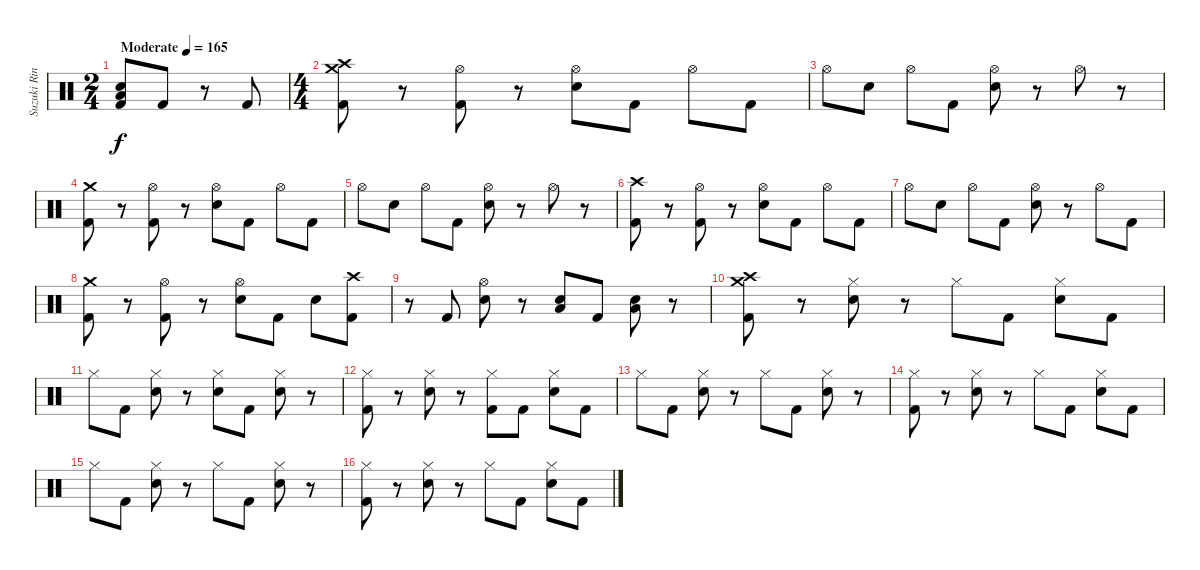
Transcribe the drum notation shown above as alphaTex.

\track ("Suzuki Rina" "Suzuki Rin") {instrument percussion}
\staff {score}
\articulation defaults
\ts (2 4)
\tempo (165 "Moderate")
\clef neutral
\ks c
("Electric Snare (hit)" "Low Floor Tom (hit)" "Kick (hit) 2").8{dy f} "Kick (hit) 2".8 r.8 "Kick (hit) 2".8 |
\ts (4 4)
("Crash high (hit)" "Crash medium (hit)" "Kick (hit) 2").8 r.8 ("Hi-Hat (open)" "Kick (hit) 2").8 r.8 ("Hi-Hat (open)" "Electric Snare (hit)").8 "Kick (hit) 2".8 "Hi-Hat (open)".8 "Kick (hit) 2".8 |
"Hi-Hat (open)".8 "Electric Snare (hit)".8 "Hi-Hat (open)".8 "Kick (hit) 2".8 ("Hi-Hat (open)" "Electric Snare (hit)").8 r.8 "Hi-Hat (open)".8 r.8 |
("Crash medium (hit)" "Kick (hit) 2").8 r.8 ("Hi-Hat (open)" "Kick (hit) 2").8 r.8 ("Hi-Hat (open)" "Electric Snare (hit)").8 "Kick (hit) 2".8 "Hi-Hat (open)".8 "Kick (hit) 2".8 |
"Hi-Hat (open)".8 "Electric Snare (hit)".8 "Hi-Hat (open)".8 "Kick (hit) 2".8 ("Hi-Hat (open)" "Electric Snare (hit)").8 r.8 "Hi-Hat (open)".8 r.8 |
("Crash high (hit)" "Kick (hit) 2").8 r.8 ("Hi-Hat (open)" "Kick (hit) 2").8 r.8 ("Hi-Hat (open)" "Electric Snare (hit)").8 "Kick (hit) 2".8 "Hi-Hat (open)".8 "Kick (hit) 2".8 |
"Hi-Hat (open)".8 "Electric Snare (hit)".8 "Hi-Hat (open)".8 "Kick (hit) 2".8 ("Hi-Hat (open)" "Electric Snare (hit)").8 r.8 "Hi-Hat (open)".8 "Kick (hit) 2".8 |
("Crash medium (hit)" "Kick (hit) 2").8 r.8 ("Hi-Hat (open)" "Kick (hit) 2").8 r.8 ("Hi-Hat (open)" "Electric Snare (hit)").8 "Kick (hit) 2".8 "Electric Snare (hit)".8 ("Crash high (hit)" "Kick (hit) 2").8 |
r.8 "Kick (hit) 2".8 ("Hi-Hat (open)" "Electric Snare (hit)").8 r.8 ("Electric Snare (hit)" "Low Floor Tom (hit)").8 "Kick (hit) 2".8 ("Electric Snare (hit)" "Low Floor Tom (hit)").8 r.8 |
("Crash high (hit)" "Crash medium (hit)" "Kick (hit) 2").8 r.8 ("Hi-Hat (closed)" "Electric Snare (hit)").8 r.8 "Hi-Hat (closed)".8 "Kick (hit) 2".8 ("Hi-Hat (closed)" "Electric Snare (hit)").8 "Kick (hit) 2".8 |
"Hi-Hat (closed)".8 "Kick (hit) 2".8 ("Hi-Hat (closed)" "Electric Snare (hit)").8 r.8 ("Hi-Hat (closed)" "Electric Snare (hit)").8 "Kick (hit) 2".8 ("Hi-Hat (closed)" "Electric Snare (hit)").8 r.8 |
("Hi-Hat (closed)" "Kick (hit) 2").8 r.8 ("Hi-Hat (closed)" "Electric Snare (hit)").8 r.8 ("Hi-Hat (closed)" "Kick (hit) 2").8 "Kick (hit) 2".8 ("Hi-Hat (closed)" "Electric Snare (hit)").8 "Kick (hit) 2".8 |
"Hi-Hat (closed)".8 "Kick (hit) 2".8 ("Hi-Hat (closed)" "Electric Snare (hit)").8 r.8 "Hi-Hat (closed)".8 "Kick (hit) 2".8 ("Hi-Hat (closed)" "Electric Snare (hit)").8 r.8 |
("Hi-Hat (closed)" "Kick (hit) 2").8 r.8 ("Hi-Hat (closed)" "Electric Snare (hit)").8 r.8 "Hi-Hat (closed)".8 "Kick (hit) 2".8 ("Hi-Hat (closed)" "Electric Snare (hit)").8 "Kick (hit) 2".8 |
"Hi-Hat (closed)".8 "Kick (hit) 2".8 ("Hi-Hat (closed)" "Electric Snare (hit)").8 r.8 "Hi-Hat (closed)".8 "Kick (hit) 2".8 ("Hi-Hat (closed)" "Electric Snare (hit)").8 r.8 |
("Hi-Hat (closed)" "Kick (hit) 2").8 r.8 ("Hi-Hat (closed)" "Electric Snare (hit)").8 r.8 "Hi-Hat (closed)".8 "Kick (hit) 2".8 ("Hi-Hat (closed)" "Electric Snare (hit)").8 "Kick (hit) 2".8
